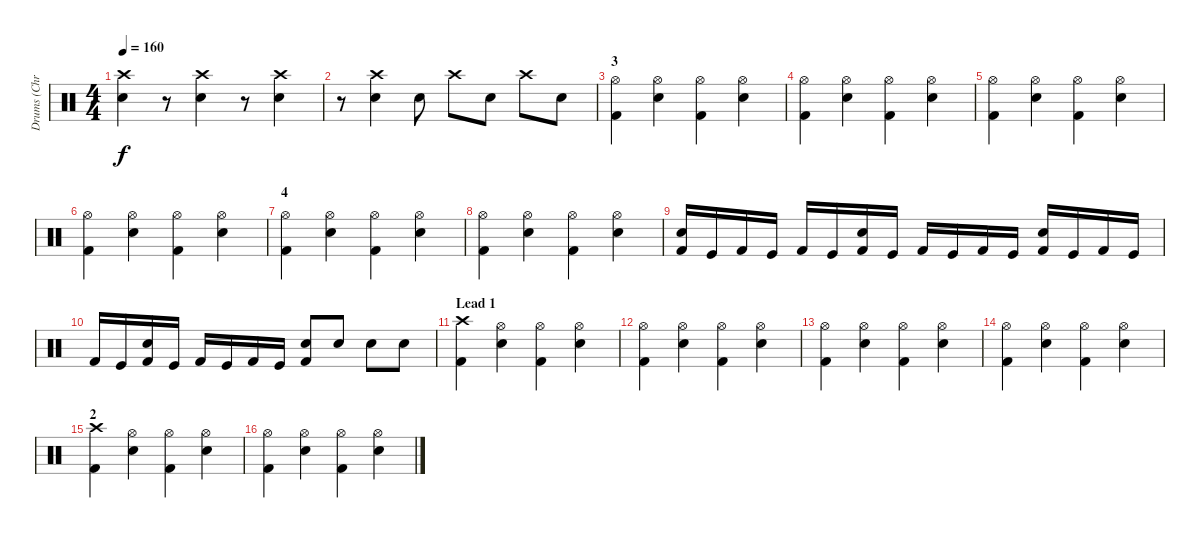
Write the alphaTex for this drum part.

\track ("Drums (Chris Efthimiadis)" "Drums (Chr") {instrument percussion}
\staff {score}
\articulation defaults
\ts (4 4)
\tempo 160
\clef neutral
\ks c
("Crash high (hit)" "Snare (hit) 2").4{dy f} r.8 ("Crash high (hit)" "Snare (hit) 2").4 r.8 ("Crash high (hit)" "Snare (hit) 2").4 |
r.8 ("Crash high (hit)" "Snare (hit) 2").4 "Snare (hit) 2".8 "Crash high (hit)".8 "Snare (hit) 2".8 "Crash high (hit)".8 "Snare (hit) 2".8 |
\section ("" "3")
("Hi-Hat (open)" "Kick (hit) 2").4 ("Hi-Hat (open)" "Snare (hit) 2").4 ("Hi-Hat (open)" "Kick (hit) 2").4 ("Hi-Hat (open)" "Snare (hit) 2").4 |
("Hi-Hat (open)" "Kick (hit) 2").4 ("Hi-Hat (open)" "Snare (hit) 2").4 ("Hi-Hat (open)" "Kick (hit) 2").4 ("Hi-Hat (open)" "Snare (hit) 2").4 |
("Hi-Hat (open)" "Kick (hit) 2").4 ("Hi-Hat (open)" "Snare (hit) 2").4 ("Hi-Hat (open)" "Kick (hit) 2").4 ("Hi-Hat (open)" "Snare (hit) 2").4 |
("Hi-Hat (open)" "Kick (hit) 2").4 ("Hi-Hat (open)" "Snare (hit) 2").4 ("Hi-Hat (open)" "Kick (hit) 2").4 ("Hi-Hat (open)" "Snare (hit) 2").4 |
\section ("" "4")
("Hi-Hat (open)" "Kick (hit) 2").4 ("Hi-Hat (open)" "Snare (hit) 2").4 ("Hi-Hat (open)" "Kick (hit) 2").4 ("Hi-Hat (open)" "Snare (hit) 2").4 |
("Hi-Hat (open)" "Kick (hit) 2").4 ("Hi-Hat (open)" "Snare (hit) 2").4 ("Hi-Hat (open)" "Kick (hit) 2").4 ("Hi-Hat (open)" "Snare (hit) 2").4 |
("Snare (hit) 2" "Kick (hit) 2").16 "Kick (hit)".16 "Kick (hit) 2".16 "Kick (hit)".16 "Kick (hit) 2".16 "Kick (hit)".16 ("Snare (hit) 2" "Kick (hit) 2").16 "Kick (hit)".16 "Kick (hit) 2".16 "Kick (hit)".16 "Kick (hit) 2".16 "Kick (hit)".16 ("Snare (hit) 2" "Kick (hit) 2").16 "Kick (hit)".16 "Kick (hit) 2".16 "Kick (hit)".16 |
"Kick (hit) 2".16 "Kick (hit)".16 ("Snare (hit) 2" "Kick (hit) 2").16 "Kick (hit)".16 "Kick (hit) 2".16 "Kick (hit)".16 "Kick (hit) 2".16 "Kick (hit)".16 ("Snare (hit) 2" "Kick (hit) 2").8 "Snare (hit) 2".8 "Snare (hit) 2".8 "Snare (hit) 2".8 |
\section ("" "Lead 1")
("Crash high (hit)" "Kick (hit) 2").4 ("Hi-Hat (open)" "Snare (hit) 2").4 ("Hi-Hat (open)" "Kick (hit) 2").4 ("Hi-Hat (open)" "Snare (hit) 2").4 |
("Hi-Hat (open)" "Kick (hit) 2").4 ("Hi-Hat (open)" "Snare (hit) 2").4 ("Hi-Hat (open)" "Kick (hit) 2").4 ("Hi-Hat (open)" "Snare (hit) 2").4 |
("Hi-Hat (open)" "Kick (hit) 2").4 ("Hi-Hat (open)" "Snare (hit) 2").4 ("Hi-Hat (open)" "Kick (hit) 2").4 ("Hi-Hat (open)" "Snare (hit) 2").4 |
("Hi-Hat (open)" "Kick (hit) 2").4 ("Hi-Hat (open)" "Snare (hit) 2").4 ("Hi-Hat (open)" "Kick (hit) 2").4 ("Hi-Hat (open)" "Snare (hit) 2").4 |
\section ("" "2")
("Crash high (hit)" "Kick (hit) 2").4 ("Hi-Hat (open)" "Snare (hit) 2").4 ("Hi-Hat (open)" "Kick (hit) 2").4 ("Hi-Hat (open)" "Snare (hit) 2").4 |
("Hi-Hat (open)" "Kick (hit) 2").4 ("Hi-Hat (open)" "Snare (hit) 2").4 ("Hi-Hat (open)" "Kick (hit) 2").4 ("Hi-Hat (open)" "Snare (hit) 2").4
